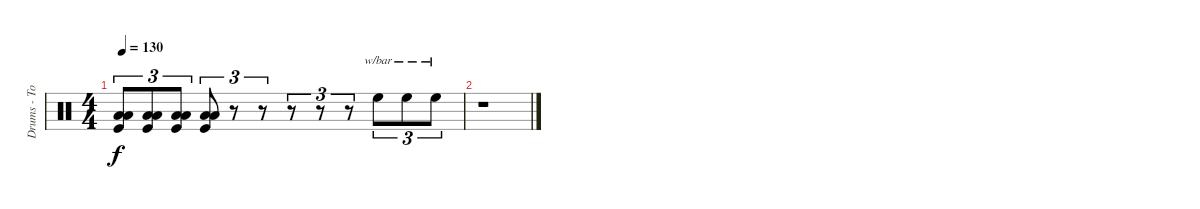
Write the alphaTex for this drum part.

\track ("Drums - Tomas" "Drums - To") {instrument percussion}
\staff {score}
\articulation defaults
\ts (4 4)
\tempo 130
\clef neutral
\ks c
("Low Floor Tom (hit)" "Low Floor Tom (hit)" "Kick (hit)").8{tu (3 2) dy f} ("Low Floor Tom (hit)" "Low Floor Tom (hit)" "Kick (hit)").8{tu (3 2)} ("Low Floor Tom (hit)" "Low Floor Tom (hit)" "Kick (hit)").8{tu (3 2)} ("Low Floor Tom (hit)" "Low Floor Tom (hit)" "Kick (hit)").8{tu (3 2)} r.8{tu (3 2)} r.8{tu (3 2)} r.8{tu (3 2)} r.8{tu (3 2)} r.8{tu (3 2)} "High Floor Tom (hit)".8{tu (3 2) tbe (custom default 0 0 28 24 30 -4 60 0)} "High Floor Tom (hit)".8{tu (3 2) tbe (custom default 0 0 28 24 30 -4 60 0)} "High Floor Tom (hit)".8{tu (3 2) tbe (custom default 0 0 28 24 30 -4 60 0)} |
r.1
